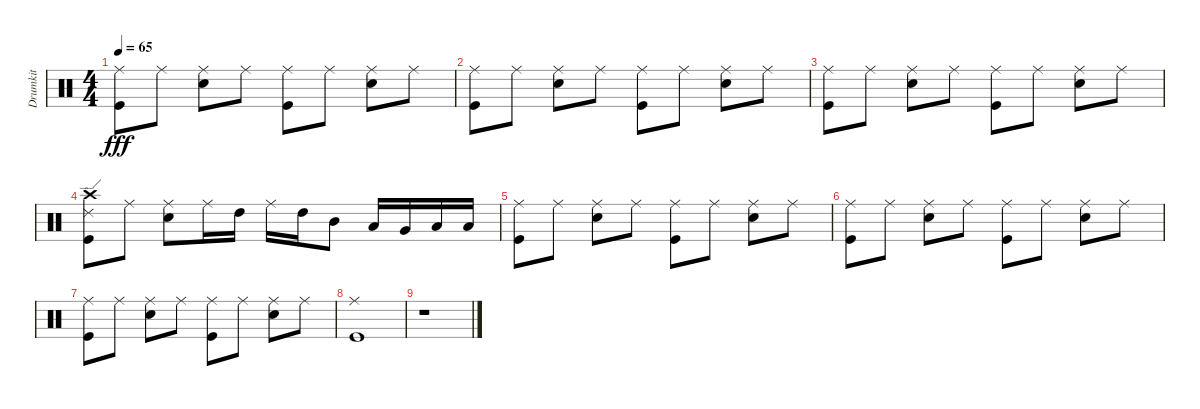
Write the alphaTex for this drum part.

\track ("Drumkit" "Drumkit") {instrument percussion}
\staff {score}
\articulation defaults
\ts (4 4)
\tempo 65
\clef neutral
\ks c
("Ride (middle)" "Kick (hit)").8{dy fff} "Ride (middle)".8 ("Ride (middle)" "Snare (hit) 2").8 "Ride (middle)".8 ("Ride (middle)" "Kick (hit)").8 "Ride (middle)".8 ("Snare (hit) 2" "Ride (middle)").8 "Ride (middle)".8 |
("Ride (middle)" "Kick (hit)").8 "Ride (middle)".8 ("Ride (middle)" "Snare (hit) 2").8 "Ride (middle)".8 ("Ride (middle)" "Kick (hit)").8 "Ride (middle)".8 ("Snare (hit) 2" "Ride (middle)").8 "Ride (middle)".8 |
("Ride (middle)" "Kick (hit)").8 "Ride (middle)".8 ("Ride (middle)" "Snare (hit) 2").8 "Ride (middle)".8 ("Ride (middle)" "Kick (hit)").8 "Ride (middle)".8 ("Snare (hit) 2" "Ride (middle)").8 "Ride (middle)".8 |
("Ride (edge) 2" "Crash high (hit)" "Kick (hit)").8 "Ride (middle)".8 ("Ride (middle)" "Snare (hit) 2").8 "Ride (middle)".16 "High Tom (hit)".16 "Ride (middle)".16 "High Tom (hit)".16 "Mid Tom (hit)".8 "Low Tom (hit)".16 "Very Low Tom (hit)".16 "Low Floor Tom (hit)".16 "Low Floor Tom (hit)".16 |
("Ride (middle)" "Kick (hit)").8 "Ride (middle)".8 ("Ride (middle)" "Snare (hit) 2").8 "Ride (middle)".8 ("Ride (middle)" "Kick (hit)").8 "Ride (middle)".8 ("Snare (hit) 2" "Ride (middle)").8 "Ride (middle)".8 |
("Ride (middle)" "Kick (hit)").8 "Ride (middle)".8 ("Ride (middle)" "Snare (hit) 2").8 "Ride (middle)".8 ("Ride (middle)" "Kick (hit)").8 "Ride (middle)".8 ("Snare (hit) 2" "Ride (middle)").8 "Ride (middle)".8 |
("Ride (middle)" "Kick (hit)").8 "Ride (middle)".8 ("Ride (middle)" "Snare (hit) 2").8 "Ride (middle)".8 ("Ride (middle)" "Kick (hit)").8 "Ride (middle)".8 ("Snare (hit) 2" "Ride (middle)").8 "Ride (middle)".8 |
("Ride (middle)" "Kick (hit)").1 |
r.1
